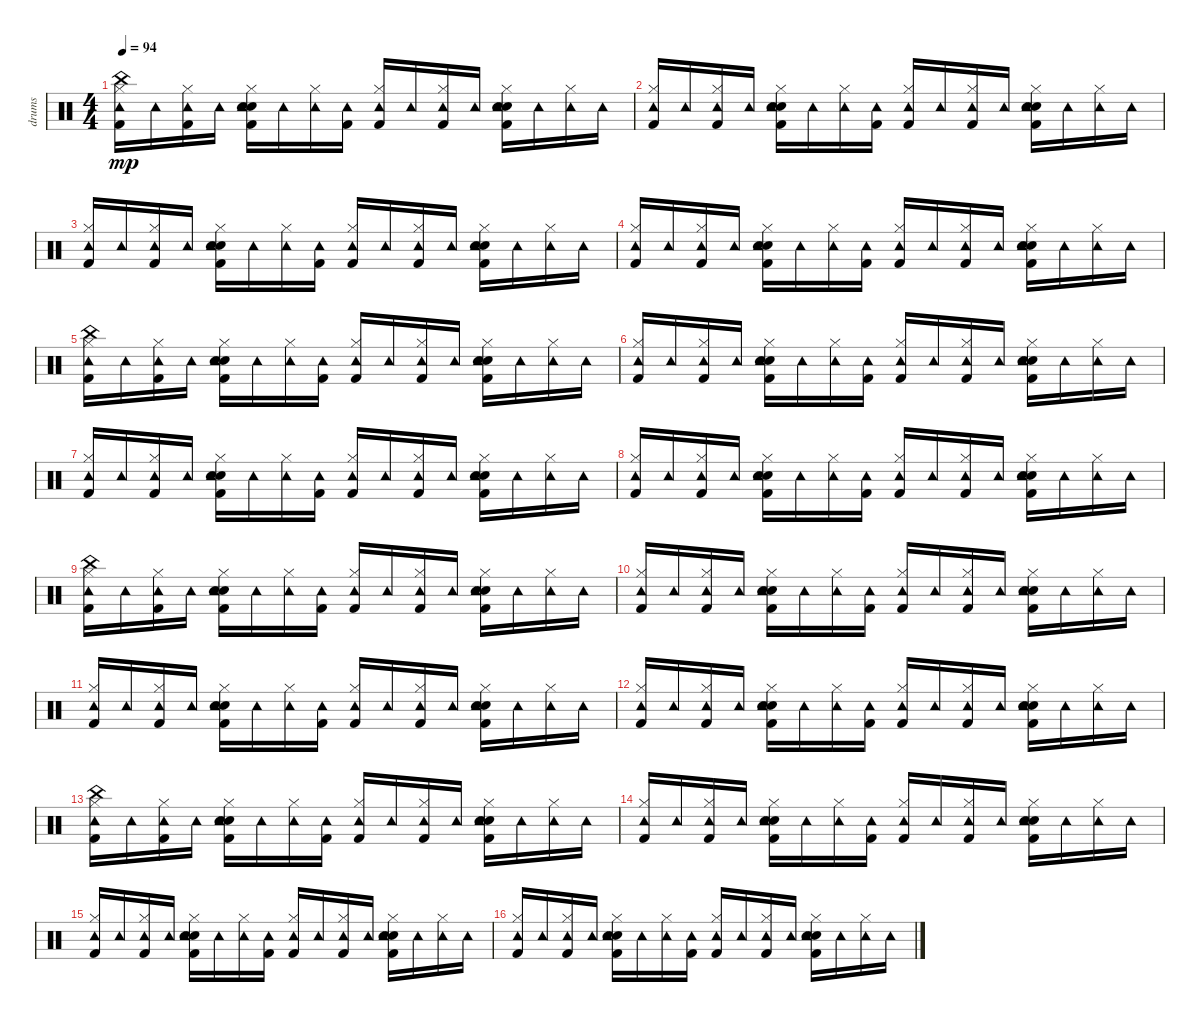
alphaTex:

\track ("drums" "drums") {instrument percussion}
\staff {score}
\articulation defaults
\ts (4 4)
\tempo 94
\clef neutral
\ks c
("Kick (hit) 2" "Hi-Hat (closed)" "Tambourine (hit)" "China (hit)").16{dy mp} "Tambourine (hit)".16 ("Kick (hit) 2" "Hi-Hat (closed)" "Tambourine (hit)").16 "Tambourine (hit)".16 ("Kick (hit) 2" "Snare (hit) 2" "Hi-Hat (closed)" "Hand Clap (hit)" "Tambourine (hit)").16 "Tambourine (hit)".16 ("Hi-Hat (closed)" "Tambourine (hit)").16 ("Kick (hit) 2" "Tambourine (hit)").16 ("Kick (hit) 2" "Hi-Hat (closed)" "Tambourine (hit)").16 "Tambourine (hit)".16 ("Kick (hit) 2" "Hi-Hat (closed)" "Tambourine (hit)").16 "Tambourine (hit)".16 ("Kick (hit) 2" "Snare (hit) 2" "Hi-Hat (closed)" "Hand Clap (hit)" "Tambourine (hit)").16 "Tambourine (hit)".16 ("Hi-Hat (closed)" "Tambourine (hit)").16 "Tambourine (hit)".16 |
("Kick (hit) 2" "Hi-Hat (closed)" "Tambourine (hit)").16 "Tambourine (hit)".16 ("Kick (hit) 2" "Hi-Hat (closed)" "Tambourine (hit)").16 "Tambourine (hit)".16 ("Kick (hit) 2" "Snare (hit) 2" "Hi-Hat (closed)" "Hand Clap (hit)" "Tambourine (hit)").16 "Tambourine (hit)".16 ("Hi-Hat (closed)" "Tambourine (hit)").16 ("Kick (hit) 2" "Tambourine (hit)").16 ("Kick (hit) 2" "Hi-Hat (closed)" "Tambourine (hit)").16 "Tambourine (hit)".16 ("Kick (hit) 2" "Hi-Hat (closed)" "Tambourine (hit)").16 "Tambourine (hit)".16 ("Kick (hit) 2" "Snare (hit) 2" "Hi-Hat (closed)" "Hand Clap (hit)" "Tambourine (hit)").16 "Tambourine (hit)".16 ("Hi-Hat (closed)" "Tambourine (hit)").16 "Tambourine (hit)".16 |
("Kick (hit) 2" "Hi-Hat (closed)" "Tambourine (hit)").16 "Tambourine (hit)".16 ("Kick (hit) 2" "Hi-Hat (closed)" "Tambourine (hit)").16 "Tambourine (hit)".16 ("Kick (hit) 2" "Snare (hit) 2" "Hi-Hat (closed)" "Hand Clap (hit)" "Tambourine (hit)").16 "Tambourine (hit)".16 ("Hi-Hat (closed)" "Tambourine (hit)").16 ("Kick (hit) 2" "Tambourine (hit)").16 ("Kick (hit) 2" "Hi-Hat (closed)" "Tambourine (hit)").16 "Tambourine (hit)".16 ("Kick (hit) 2" "Hi-Hat (closed)" "Tambourine (hit)").16 "Tambourine (hit)".16 ("Kick (hit) 2" "Snare (hit) 2" "Hi-Hat (closed)" "Hand Clap (hit)" "Tambourine (hit)").16 "Tambourine (hit)".16 ("Hi-Hat (closed)" "Tambourine (hit)").16 "Tambourine (hit)".16 |
("Kick (hit) 2" "Hi-Hat (closed)" "Tambourine (hit)").16 "Tambourine (hit)".16 ("Kick (hit) 2" "Hi-Hat (closed)" "Tambourine (hit)").16 "Tambourine (hit)".16 ("Kick (hit) 2" "Snare (hit) 2" "Hi-Hat (closed)" "Hand Clap (hit)" "Tambourine (hit)").16 "Tambourine (hit)".16 ("Hi-Hat (closed)" "Tambourine (hit)").16 ("Kick (hit) 2" "Tambourine (hit)").16 ("Kick (hit) 2" "Hi-Hat (closed)" "Tambourine (hit)").16 "Tambourine (hit)".16 ("Kick (hit) 2" "Hi-Hat (closed)" "Tambourine (hit)").16 "Tambourine (hit)".16 ("Kick (hit) 2" "Snare (hit) 2" "Hi-Hat (closed)" "Hand Clap (hit)" "Tambourine (hit)").16 "Tambourine (hit)".16 ("Hi-Hat (closed)" "Tambourine (hit)").16 "Tambourine (hit)".16 |
("Kick (hit) 2" "Hi-Hat (closed)" "Tambourine (hit)" "China (hit)").16 "Tambourine (hit)".16 ("Kick (hit) 2" "Hi-Hat (closed)" "Tambourine (hit)").16 "Tambourine (hit)".16 ("Kick (hit) 2" "Snare (hit) 2" "Hi-Hat (closed)" "Hand Clap (hit)" "Tambourine (hit)").16 "Tambourine (hit)".16 ("Hi-Hat (closed)" "Tambourine (hit)").16 ("Kick (hit) 2" "Tambourine (hit)").16 ("Kick (hit) 2" "Hi-Hat (closed)" "Tambourine (hit)").16 "Tambourine (hit)".16 ("Kick (hit) 2" "Hi-Hat (closed)" "Tambourine (hit)").16 "Tambourine (hit)".16 ("Kick (hit) 2" "Snare (hit) 2" "Hi-Hat (closed)" "Hand Clap (hit)" "Tambourine (hit)").16 "Tambourine (hit)".16 ("Hi-Hat (closed)" "Tambourine (hit)").16 "Tambourine (hit)".16 |
("Kick (hit) 2" "Hi-Hat (closed)" "Tambourine (hit)").16 "Tambourine (hit)".16 ("Kick (hit) 2" "Hi-Hat (closed)" "Tambourine (hit)").16 "Tambourine (hit)".16 ("Kick (hit) 2" "Snare (hit) 2" "Hi-Hat (closed)" "Hand Clap (hit)" "Tambourine (hit)").16 "Tambourine (hit)".16 ("Hi-Hat (closed)" "Tambourine (hit)").16 ("Kick (hit) 2" "Tambourine (hit)").16 ("Kick (hit) 2" "Hi-Hat (closed)" "Tambourine (hit)").16 "Tambourine (hit)".16 ("Kick (hit) 2" "Hi-Hat (closed)" "Tambourine (hit)").16 "Tambourine (hit)".16 ("Kick (hit) 2" "Snare (hit) 2" "Hi-Hat (closed)" "Hand Clap (hit)" "Tambourine (hit)").16 "Tambourine (hit)".16 ("Hi-Hat (closed)" "Tambourine (hit)").16 "Tambourine (hit)".16 |
("Kick (hit) 2" "Hi-Hat (closed)" "Tambourine (hit)").16 "Tambourine (hit)".16 ("Kick (hit) 2" "Hi-Hat (closed)" "Tambourine (hit)").16 "Tambourine (hit)".16 ("Kick (hit) 2" "Snare (hit) 2" "Hi-Hat (closed)" "Hand Clap (hit)" "Tambourine (hit)").16 "Tambourine (hit)".16 ("Hi-Hat (closed)" "Tambourine (hit)").16 ("Kick (hit) 2" "Tambourine (hit)").16 ("Kick (hit) 2" "Hi-Hat (closed)" "Tambourine (hit)").16 "Tambourine (hit)".16 ("Kick (hit) 2" "Hi-Hat (closed)" "Tambourine (hit)").16 "Tambourine (hit)".16 ("Kick (hit) 2" "Snare (hit) 2" "Hi-Hat (closed)" "Hand Clap (hit)" "Tambourine (hit)").16 "Tambourine (hit)".16 ("Hi-Hat (closed)" "Tambourine (hit)").16 "Tambourine (hit)".16 |
("Kick (hit) 2" "Hi-Hat (closed)" "Tambourine (hit)").16 "Tambourine (hit)".16 ("Kick (hit) 2" "Hi-Hat (closed)" "Tambourine (hit)").16 "Tambourine (hit)".16 ("Kick (hit) 2" "Snare (hit) 2" "Hi-Hat (closed)" "Hand Clap (hit)" "Tambourine (hit)").16 "Tambourine (hit)".16 ("Hi-Hat (closed)" "Tambourine (hit)").16 ("Kick (hit) 2" "Tambourine (hit)").16 ("Kick (hit) 2" "Hi-Hat (closed)" "Tambourine (hit)").16 "Tambourine (hit)".16 ("Kick (hit) 2" "Hi-Hat (closed)" "Tambourine (hit)").16 "Tambourine (hit)".16 ("Kick (hit) 2" "Snare (hit) 2" "Hi-Hat (closed)" "Hand Clap (hit)" "Tambourine (hit)").16 "Tambourine (hit)".16 ("Hi-Hat (closed)" "Tambourine (hit)").16 "Tambourine (hit)".16 |
("Kick (hit) 2" "Hi-Hat (closed)" "Tambourine (hit)" "China (hit)").16 "Tambourine (hit)".16 ("Kick (hit) 2" "Hi-Hat (closed)" "Tambourine (hit)").16 "Tambourine (hit)".16 ("Kick (hit) 2" "Snare (hit) 2" "Hi-Hat (closed)" "Hand Clap (hit)" "Tambourine (hit)").16 "Tambourine (hit)".16 ("Hi-Hat (closed)" "Tambourine (hit)").16 ("Kick (hit) 2" "Tambourine (hit)").16 ("Kick (hit) 2" "Hi-Hat (closed)" "Tambourine (hit)").16 "Tambourine (hit)".16 ("Kick (hit) 2" "Hi-Hat (closed)" "Tambourine (hit)").16 "Tambourine (hit)".16 ("Kick (hit) 2" "Snare (hit) 2" "Hi-Hat (closed)" "Hand Clap (hit)" "Tambourine (hit)").16 "Tambourine (hit)".16 ("Hi-Hat (closed)" "Tambourine (hit)").16 "Tambourine (hit)".16 |
("Kick (hit) 2" "Hi-Hat (closed)" "Tambourine (hit)").16 "Tambourine (hit)".16 ("Kick (hit) 2" "Hi-Hat (closed)" "Tambourine (hit)").16 "Tambourine (hit)".16 ("Kick (hit) 2" "Snare (hit) 2" "Hi-Hat (closed)" "Hand Clap (hit)" "Tambourine (hit)").16 "Tambourine (hit)".16 ("Hi-Hat (closed)" "Tambourine (hit)").16 ("Kick (hit) 2" "Tambourine (hit)").16 ("Kick (hit) 2" "Hi-Hat (closed)" "Tambourine (hit)").16 "Tambourine (hit)".16 ("Kick (hit) 2" "Hi-Hat (closed)" "Tambourine (hit)").16 "Tambourine (hit)".16 ("Kick (hit) 2" "Snare (hit) 2" "Hi-Hat (closed)" "Hand Clap (hit)" "Tambourine (hit)").16 "Tambourine (hit)".16 ("Hi-Hat (closed)" "Tambourine (hit)").16 "Tambourine (hit)".16 |
("Kick (hit) 2" "Hi-Hat (closed)" "Tambourine (hit)").16 "Tambourine (hit)".16 ("Kick (hit) 2" "Hi-Hat (closed)" "Tambourine (hit)").16 "Tambourine (hit)".16 ("Kick (hit) 2" "Snare (hit) 2" "Hi-Hat (closed)" "Hand Clap (hit)" "Tambourine (hit)").16 "Tambourine (hit)".16 ("Hi-Hat (closed)" "Tambourine (hit)").16 ("Kick (hit) 2" "Tambourine (hit)").16 ("Kick (hit) 2" "Hi-Hat (closed)" "Tambourine (hit)").16 "Tambourine (hit)".16 ("Kick (hit) 2" "Hi-Hat (closed)" "Tambourine (hit)").16 "Tambourine (hit)".16 ("Kick (hit) 2" "Snare (hit) 2" "Hi-Hat (closed)" "Hand Clap (hit)" "Tambourine (hit)").16 "Tambourine (hit)".16 ("Hi-Hat (closed)" "Tambourine (hit)").16 "Tambourine (hit)".16 |
("Kick (hit) 2" "Hi-Hat (closed)" "Tambourine (hit)").16 "Tambourine (hit)".16 ("Kick (hit) 2" "Hi-Hat (closed)" "Tambourine (hit)").16 "Tambourine (hit)".16 ("Kick (hit) 2" "Snare (hit) 2" "Hi-Hat (closed)" "Hand Clap (hit)" "Tambourine (hit)").16 "Tambourine (hit)".16 ("Hi-Hat (closed)" "Tambourine (hit)").16 ("Kick (hit) 2" "Tambourine (hit)").16 ("Kick (hit) 2" "Hi-Hat (closed)" "Tambourine (hit)").16 "Tambourine (hit)".16 ("Kick (hit) 2" "Hi-Hat (closed)" "Tambourine (hit)").16 "Tambourine (hit)".16 ("Kick (hit) 2" "Snare (hit) 2" "Hi-Hat (closed)" "Hand Clap (hit)" "Tambourine (hit)").16 "Tambourine (hit)".16 ("Hi-Hat (closed)" "Tambourine (hit)").16 "Tambourine (hit)".16 |
("Kick (hit) 2" "Hi-Hat (closed)" "Tambourine (hit)" "China (hit)").16 "Tambourine (hit)".16 ("Kick (hit) 2" "Hi-Hat (closed)" "Tambourine (hit)").16 "Tambourine (hit)".16 ("Kick (hit) 2" "Snare (hit) 2" "Hi-Hat (closed)" "Hand Clap (hit)" "Tambourine (hit)").16 "Tambourine (hit)".16 ("Hi-Hat (closed)" "Tambourine (hit)").16 ("Kick (hit) 2" "Tambourine (hit)").16 ("Kick (hit) 2" "Hi-Hat (closed)" "Tambourine (hit)").16 "Tambourine (hit)".16 ("Kick (hit) 2" "Hi-Hat (closed)" "Tambourine (hit)").16 "Tambourine (hit)".16 ("Kick (hit) 2" "Snare (hit) 2" "Hi-Hat (closed)" "Hand Clap (hit)" "Tambourine (hit)").16 "Tambourine (hit)".16 ("Hi-Hat (closed)" "Tambourine (hit)").16 "Tambourine (hit)".16 |
("Kick (hit) 2" "Hi-Hat (closed)" "Tambourine (hit)").16 "Tambourine (hit)".16 ("Kick (hit) 2" "Hi-Hat (closed)" "Tambourine (hit)").16 "Tambourine (hit)".16 ("Kick (hit) 2" "Snare (hit) 2" "Hi-Hat (closed)" "Hand Clap (hit)" "Tambourine (hit)").16 "Tambourine (hit)".16 ("Hi-Hat (closed)" "Tambourine (hit)").16 ("Kick (hit) 2" "Tambourine (hit)").16 ("Kick (hit) 2" "Hi-Hat (closed)" "Tambourine (hit)").16 "Tambourine (hit)".16 ("Kick (hit) 2" "Hi-Hat (closed)" "Tambourine (hit)").16 "Tambourine (hit)".16 ("Kick (hit) 2" "Snare (hit) 2" "Hi-Hat (closed)" "Hand Clap (hit)" "Tambourine (hit)").16 "Tambourine (hit)".16 ("Hi-Hat (closed)" "Tambourine (hit)").16 "Tambourine (hit)".16 |
("Kick (hit) 2" "Hi-Hat (closed)" "Tambourine (hit)").16 "Tambourine (hit)".16 ("Kick (hit) 2" "Hi-Hat (closed)" "Tambourine (hit)").16 "Tambourine (hit)".16 ("Kick (hit) 2" "Snare (hit) 2" "Hi-Hat (closed)" "Hand Clap (hit)" "Tambourine (hit)").16 "Tambourine (hit)".16 ("Hi-Hat (closed)" "Tambourine (hit)").16 ("Kick (hit) 2" "Tambourine (hit)").16 ("Kick (hit) 2" "Hi-Hat (closed)" "Tambourine (hit)").16 "Tambourine (hit)".16 ("Kick (hit) 2" "Hi-Hat (closed)" "Tambourine (hit)").16 "Tambourine (hit)".16 ("Kick (hit) 2" "Snare (hit) 2" "Hi-Hat (closed)" "Hand Clap (hit)" "Tambourine (hit)").16 "Tambourine (hit)".16 ("Hi-Hat (closed)" "Tambourine (hit)").16 "Tambourine (hit)".16 |
("Kick (hit) 2" "Hi-Hat (closed)" "Tambourine (hit)").16 "Tambourine (hit)".16 ("Kick (hit) 2" "Hi-Hat (closed)" "Tambourine (hit)").16 "Tambourine (hit)".16 ("Kick (hit) 2" "Snare (hit) 2" "Hi-Hat (closed)" "Hand Clap (hit)" "Tambourine (hit)").16 "Tambourine (hit)".16 ("Hi-Hat (closed)" "Tambourine (hit)").16 ("Kick (hit) 2" "Tambourine (hit)").16 ("Kick (hit) 2" "Hi-Hat (closed)" "Tambourine (hit)").16 "Tambourine (hit)".16 ("Kick (hit) 2" "Hi-Hat (closed)" "Tambourine (hit)").16 "Tambourine (hit)".16 ("Kick (hit) 2" "Snare (hit) 2" "Hi-Hat (closed)" "Hand Clap (hit)" "Tambourine (hit)").16 "Tambourine (hit)".16 ("Hi-Hat (closed)" "Tambourine (hit)").16 "Tambourine (hit)".16
